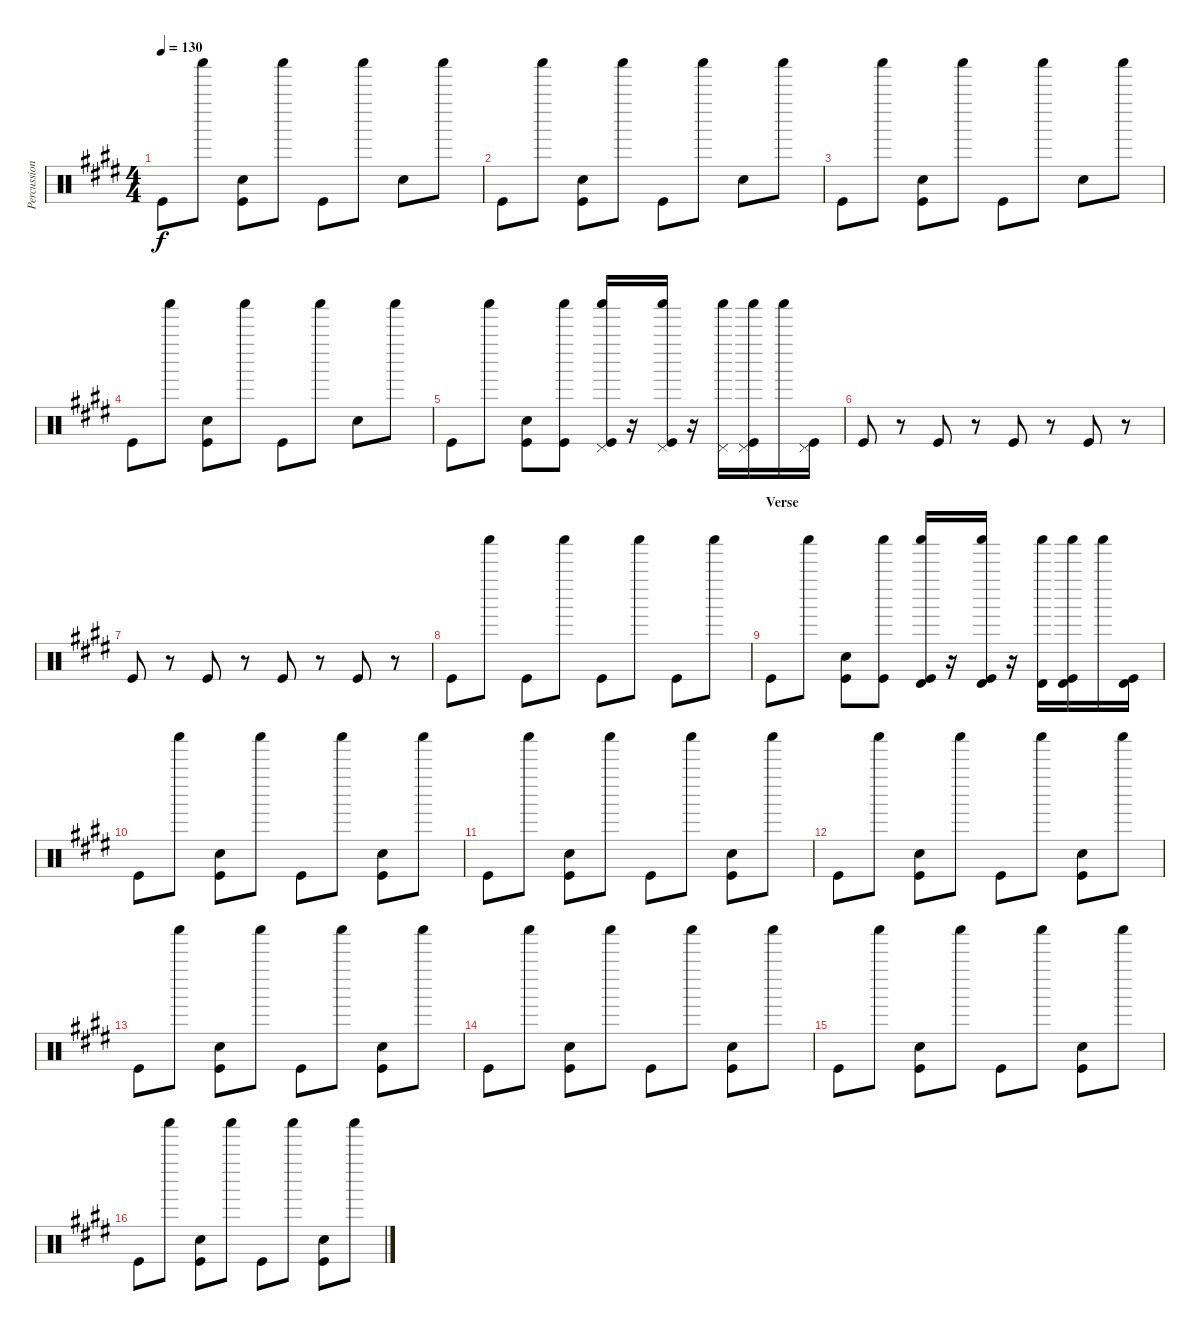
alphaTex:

\track ("Percussion" "Percussion") {instrument percussion}
\staff {score}
\articulation defaults
\ts (4 4)
\tempo 130
\clef neutral
\ks e "Kick (hit)".8{dy f} "Shaker (hit)".8
("Electric Snare (hit)" "Kick (hit)").8 "Shaker (hit)".8 "Kick (hit)".8 "Shaker (hit)".8 "Electric Snare (hit)".8 "Shaker (hit)".8 |
"Kick (hit)".8 "Shaker (hit)".8 ("Electric Snare (hit)" "Kick (hit)").8 "Shaker (hit)".8 "Kick (hit)".8 "Shaker (hit)".8 "Electric Snare (hit)".8 "Shaker (hit)".8 |
"Kick (hit)".8 "Shaker (hit)".8 ("Electric Snare (hit)" "Kick (hit)").8 "Shaker (hit)".8 "Kick (hit)".8 "Shaker (hit)".8 "Electric Snare (hit)".8 "Shaker (hit)".8 |
"Kick (hit)".8 "Shaker (hit)".8 ("Electric Snare (hit)" "Kick (hit)").8 "Shaker (hit)".8 "Kick (hit)".8 "Shaker (hit)".8 "Electric Snare (hit)".8 "Shaker (hit)".8 |
"Kick (hit)".8 "Shaker (hit)".8 ("Electric Snare (hit)" "Kick (hit)").8 ("Shaker (hit)" "Kick (hit)").8 ("Pedal Hi-Hat (hit)" "Shaker (hit)" "Kick (hit)").16 r.16 ("Pedal Hi-Hat (hit)" "Shaker (hit)" "Kick (hit)").16 r.16 ("Pedal Hi-Hat (hit)" "Shaker (hit)").16 ("Pedal Hi-Hat (hit)" "Shaker (hit)" "Kick (hit)").16 "Shaker (hit)".16 ("Pedal Hi-Hat (hit)" "Kick (hit)").16 |
"Kick (hit)".8 r.8 "Kick (hit)".8 r.8 "Kick (hit)".8 r.8 "Kick (hit)".8 r.8 |
"Kick (hit)".8 r.8 "Kick (hit)".8 r.8 "Kick (hit)".8 r.8 "Kick (hit)".8 r.8 |
"Kick (hit)".8 "Shaker (hit)".8 "Kick (hit)".8 "Shaker (hit)".8 "Kick (hit)".8 "Shaker (hit)".8 "Kick (hit)".8 "Shaker (hit)".8 |
\section ("" "Verse")
"Kick (hit)".8 "Shaker (hit)".8 ("Electric Snare (hit)" "Kick (hit)").8 ("Shaker (hit)" "Kick (hit)").8 ("Timbale high (hit)" "Shaker (hit)" "Kick (hit)").16 r.16 ("Timbale high (hit)" "Shaker (hit)" "Kick (hit)").16 r.16 ("Timbale high (hit)" "Shaker (hit)").16 ("Timbale high (hit)" "Shaker (hit)" "Kick (hit)").16 "Shaker (hit)".16 ("Timbale high (hit)" "Kick (hit)").16 |
"Kick (hit)".8 "Shaker (hit)".8 ("Electric Snare (hit)" "Kick (hit)").8 "Shaker (hit)".8 "Kick (hit)".8 "Shaker (hit)".8 ("Electric Snare (hit)" "Kick (hit)").8 "Shaker (hit)".8 |
"Kick (hit)".8 "Shaker (hit)".8 ("Electric Snare (hit)" "Kick (hit)").8 "Shaker (hit)".8 "Kick (hit)".8 "Shaker (hit)".8 ("Electric Snare (hit)" "Kick (hit)").8 "Shaker (hit)".8 |
"Kick (hit)".8 "Shaker (hit)".8 ("Electric Snare (hit)" "Kick (hit)").8 "Shaker (hit)".8 "Kick (hit)".8 "Shaker (hit)".8 ("Electric Snare (hit)" "Kick (hit)").8 "Shaker (hit)".8 |
"Kick (hit)".8 "Shaker (hit)".8 ("Electric Snare (hit)" "Kick (hit)").8 "Shaker (hit)".8 "Kick (hit)".8 "Shaker (hit)".8 ("Electric Snare (hit)" "Kick (hit)").8 "Shaker (hit)".8 |
"Kick (hit)".8 "Shaker (hit)".8 ("Electric Snare (hit)" "Kick (hit)").8 "Shaker (hit)".8 "Kick (hit)".8 "Shaker (hit)".8 ("Electric Snare (hit)" "Kick (hit)").8 "Shaker (hit)".8 |
"Kick (hit)".8 "Shaker (hit)".8 ("Electric Snare (hit)" "Kick (hit)").8 "Shaker (hit)".8 "Kick (hit)".8 "Shaker (hit)".8 ("Electric Snare (hit)" "Kick (hit)").8 "Shaker (hit)".8 |
"Kick (hit)".8 "Shaker (hit)".8 ("Electric Snare (hit)" "Kick (hit)").8 "Shaker (hit)".8 "Kick (hit)".8 "Shaker (hit)".8 ("Electric Snare (hit)" "Kick (hit)").8 "Shaker (hit)".8
